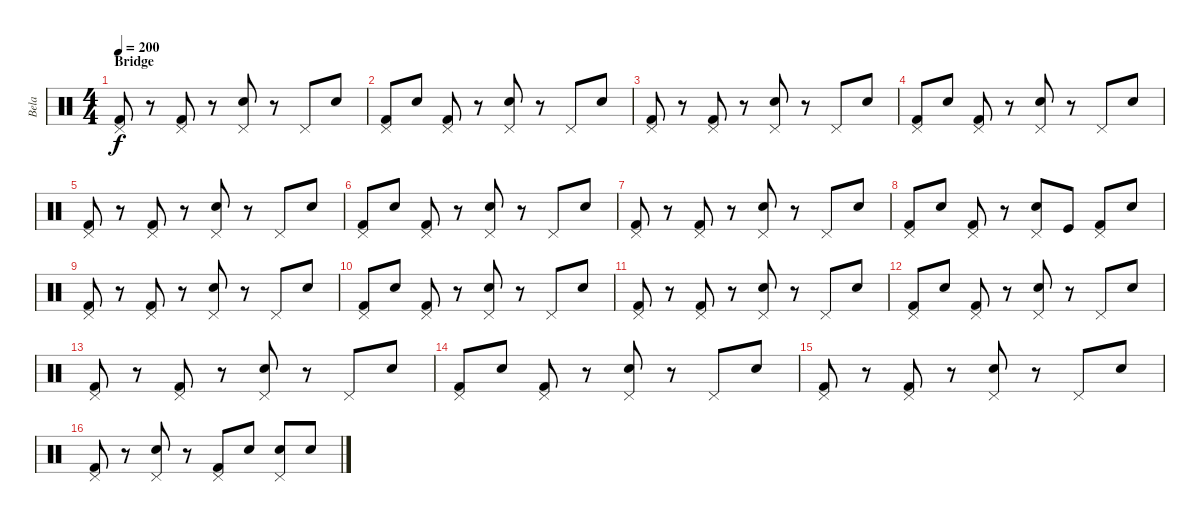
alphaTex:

\track ("Bela" "Bela") {instrument percussion}
\staff {score}
\articulation defaults
\ts (4 4)
\section ("" "Bridge")
\tempo 200
\clef neutral
\ks c
("Pedal Hi-Hat (hit)" "Kick (hit) 2").8{dy f} r.8 ("Pedal Hi-Hat (hit)" "Kick (hit) 2").8 r.8 ("Pedal Hi-Hat (hit)" "Electric Snare (hit)").8 r.8 "Pedal Hi-Hat (hit)".8 "Electric Snare (hit)".8 |
("Pedal Hi-Hat (hit)" "Kick (hit) 2").8 "Electric Snare (hit)".8 ("Pedal Hi-Hat (hit)" "Kick (hit) 2").8 r.8 ("Pedal Hi-Hat (hit)" "Electric Snare (hit)").8 r.8 "Pedal Hi-Hat (hit)".8 "Electric Snare (hit)".8 |
("Pedal Hi-Hat (hit)" "Kick (hit) 2").8 r.8 ("Pedal Hi-Hat (hit)" "Kick (hit) 2").8 r.8 ("Pedal Hi-Hat (hit)" "Electric Snare (hit)").8 r.8 "Pedal Hi-Hat (hit)".8 "Electric Snare (hit)".8 |
("Pedal Hi-Hat (hit)" "Kick (hit) 2").8 "Electric Snare (hit)".8 ("Pedal Hi-Hat (hit)" "Kick (hit) 2").8 r.8 ("Pedal Hi-Hat (hit)" "Electric Snare (hit)").8 r.8 "Pedal Hi-Hat (hit)".8 "Electric Snare (hit)".8 |
("Pedal Hi-Hat (hit)" "Kick (hit) 2").8 r.8 ("Pedal Hi-Hat (hit)" "Kick (hit) 2").8 r.8 ("Pedal Hi-Hat (hit)" "Electric Snare (hit)").8 r.8 "Pedal Hi-Hat (hit)".8 "Electric Snare (hit)".8 |
("Pedal Hi-Hat (hit)" "Kick (hit) 2").8 "Electric Snare (hit)".8 ("Pedal Hi-Hat (hit)" "Kick (hit) 2").8 r.8 ("Pedal Hi-Hat (hit)" "Electric Snare (hit)").8 r.8 "Pedal Hi-Hat (hit)".8 "Electric Snare (hit)".8 |
("Pedal Hi-Hat (hit)" "Kick (hit) 2").8 r.8 ("Pedal Hi-Hat (hit)" "Kick (hit) 2").8 r.8 ("Pedal Hi-Hat (hit)" "Electric Snare (hit)").8 r.8 "Pedal Hi-Hat (hit)".8 "Electric Snare (hit)".8 |
("Pedal Hi-Hat (hit)" "Kick (hit) 2").8 "Electric Snare (hit)".8 ("Pedal Hi-Hat (hit)" "Kick (hit) 2").8 r.8 ("Pedal Hi-Hat (hit)" "Electric Snare (hit)").8 "Kick (hit)".8 ("Pedal Hi-Hat (hit)" "Kick (hit) 2").8 "Electric Snare (hit)".8 |
("Pedal Hi-Hat (hit)" "Kick (hit) 2").8 r.8 ("Pedal Hi-Hat (hit)" "Kick (hit) 2").8 r.8 ("Pedal Hi-Hat (hit)" "Electric Snare (hit)").8 r.8 "Pedal Hi-Hat (hit)".8 "Electric Snare (hit)".8 |
("Pedal Hi-Hat (hit)" "Kick (hit) 2").8 "Electric Snare (hit)".8 ("Pedal Hi-Hat (hit)" "Kick (hit) 2").8 r.8 ("Pedal Hi-Hat (hit)" "Electric Snare (hit)").8 r.8 "Pedal Hi-Hat (hit)".8 "Electric Snare (hit)".8 |
("Pedal Hi-Hat (hit)" "Kick (hit) 2").8 r.8 ("Pedal Hi-Hat (hit)" "Kick (hit) 2").8 r.8 ("Pedal Hi-Hat (hit)" "Electric Snare (hit)").8 r.8 "Pedal Hi-Hat (hit)".8 "Electric Snare (hit)".8 |
("Pedal Hi-Hat (hit)" "Kick (hit) 2").8 "Electric Snare (hit)".8 ("Pedal Hi-Hat (hit)" "Kick (hit) 2").8 r.8 ("Pedal Hi-Hat (hit)" "Electric Snare (hit)").8 r.8 "Pedal Hi-Hat (hit)".8 "Electric Snare (hit)".8 |
("Pedal Hi-Hat (hit)" "Kick (hit) 2").8 r.8 ("Pedal Hi-Hat (hit)" "Kick (hit) 2").8 r.8 ("Pedal Hi-Hat (hit)" "Electric Snare (hit)").8 r.8 "Pedal Hi-Hat (hit)".8 "Electric Snare (hit)".8 |
("Pedal Hi-Hat (hit)" "Kick (hit) 2").8 "Electric Snare (hit)".8 ("Pedal Hi-Hat (hit)" "Kick (hit) 2").8 r.8 ("Pedal Hi-Hat (hit)" "Electric Snare (hit)").8 r.8 "Pedal Hi-Hat (hit)".8 "Electric Snare (hit)".8 |
("Pedal Hi-Hat (hit)" "Kick (hit) 2").8 r.8 ("Pedal Hi-Hat (hit)" "Kick (hit) 2").8 r.8 ("Pedal Hi-Hat (hit)" "Electric Snare (hit)").8 r.8 "Pedal Hi-Hat (hit)".8 "Electric Snare (hit)".8 |
("Pedal Hi-Hat (hit)" "Kick (hit) 2").8 r.8 ("Pedal Hi-Hat (hit)" "Electric Snare (hit)").8 r.8 ("Pedal Hi-Hat (hit)" "Kick (hit) 2").8 "Electric Snare (hit)".8 ("Pedal Hi-Hat (hit)" "Electric Snare (hit)").8 "Electric Snare (hit)".8
